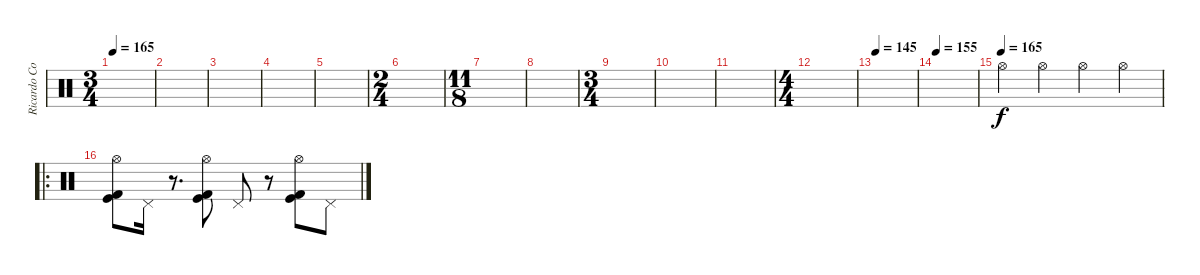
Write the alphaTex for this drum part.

\track ("Ricardo Confessori" "Ricardo Co") {instrument percussion}
\staff {score}
\articulation defaults
\ts (3 4)
\tempo 165
\clef neutral
\ks c
|
|
|
|
|
\ts (2 4)
|
\ts (11 8)
|
|
\ts (3 4)
|
|
|
\ts (4 4)
|
\tempo 145
|
\tempo 155
|
\tempo (165)
"Hi-Hat (open)".4 "Hi-Hat (open)".4 "Hi-Hat (open)".4 "Hi-Hat (open)".4 |
\ro
("Kick (hit) 2" "Kick (hit)" "Hi-Hat (open)").8 "Pedal Hi-Hat (hit)".16 r.8{d} ("Kick (hit) 2" "Kick (hit)" "Hi-Hat (open)").8 "Pedal Hi-Hat (hit)".8 r.8 ("Kick (hit)" "Hi-Hat (open)" "Kick (hit) 2").8 "Pedal Hi-Hat (hit)".8
